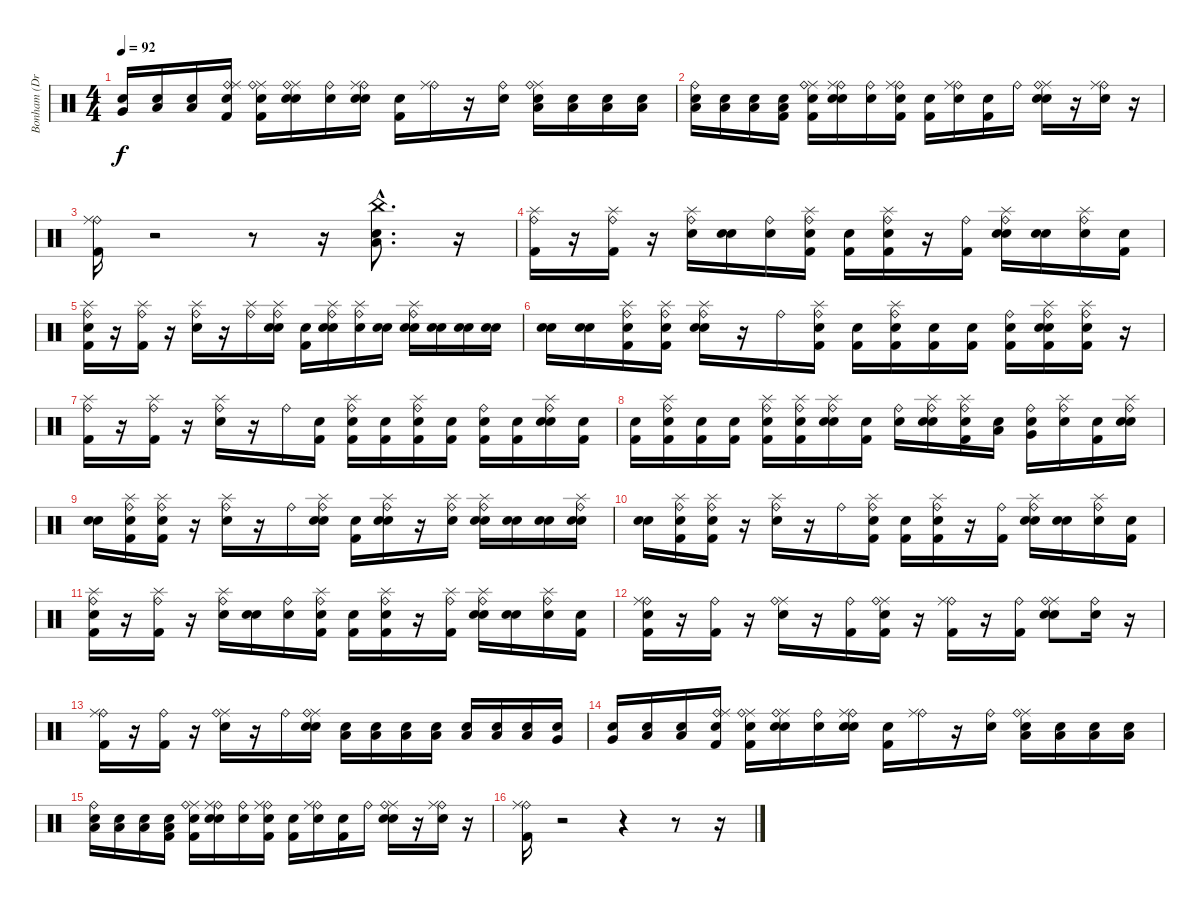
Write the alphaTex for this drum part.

\track ("Bonham (Drums)" "Bonham (Dr") {instrument percussion}
\staff {score}
\articulation defaults
\ts (4 4)
\tempo 92
\clef neutral
\ks c
("Snare (hit)" "Very Low Tom (hit)").16{dy f} ("Snare (hit)" "Low Floor Tom (hit)").16 ("Snare (hit)" "Low Floor Tom (hit)").16 ("Snare (hit)" "Ride (bell)" "Ride (middle)" "Kick (hit) 2").16 ("Snare (hit)" "Ride (middle)" "Kick (hit) 2" "Ride (bell)").16 ("Snare (hit)" "Ride (middle)" "Electric Snare (hit)" "Ride (bell)").16 ("Snare (hit)" "Ride (bell)").16 ("Snare (hit)" "Electric Snare (hit)" "Ride (bell)" "Ride (middle)").16 ("Snare (hit)" "Kick (hit) 2").16 ("Ride (bell)" "Ride (middle)").16 r.16 ("Electric Snare (hit)" "Ride (bell)").16 ("Snare (hit)" "Ride (middle)" "Low Tom (hit)" "Ride (bell)").16 ("Snare (hit)" "Low Tom (hit)").16 ("Snare (hit)" "Low Tom (hit)").16 ("Snare (hit)" "Low Tom (hit)").16 |
("Snare (hit)" "Low Tom (hit)" "Ride (bell)").16 ("Snare (hit)" "Low Tom (hit)").16 ("Snare (hit)" "Low Tom (hit)").16 ("Snare (hit)" "Low Tom (hit)" "Kick (hit) 2").16 ("Snare (hit)" "Ride (middle)" "Ride (bell)" "Kick (hit) 2").16 ("Snare (hit)" "Electric Snare (hit)" "Ride (bell)" "Ride (middle)").16 ("Snare (hit)" "Ride (bell)").16 ("Snare (hit)" "Kick (hit) 2" "Ride (bell)" "Ride (middle)").16 ("Snare (hit)" "Kick (hit) 2").16 ("Snare (hit)" "Ride (bell)" "Ride (middle)").16 ("Snare (hit)" "Kick (hit) 2").16 "Ride (bell)".16 ("Snare (hit)" "Electric Snare (hit)" "Ride (middle)" "Ride (bell)").16 r.16 ("Electric Snare (hit)" "Ride (bell)" "Ride (middle)").16 r.16 |
("Kick (hit) 2" "Ride (bell)" "Ride (middle)").16 r.2 r.8 r.16 ("Low Tom (hit)"{hac} "Electric Snare (hit)"{hac} "China (hit)"{hac}).8{d} r.16 |
("Kick (hit) 2" "Ride (bell)" "Splash (hit)").16 r.16 ("Kick (hit) 2" "Ride (bell)" "Splash (hit)").16 r.16 ("Electric Snare (hit)" "Ride (bell)" "Splash (hit)").16 ("Snare (hit)" "Electric Snare (hit)").16 ("Snare (hit)" "Ride (bell)").16 ("Snare (hit)" "Kick (hit) 2" "Ride (bell)" "Splash (hit)").16 ("Snare (hit)" "Kick (hit) 2").16 ("Snare (hit)" "Kick (hit) 2" "Ride (bell)" "Splash (hit)").16 r.16 ("Ride (bell)" "Kick (hit) 2").16 ("Snare (hit)" "Ride (bell)" "Electric Snare (hit)" "Splash (hit)").16 ("Snare (hit)" "Electric Snare (hit)").16 ("Snare (hit)" "Ride (bell)" "Splash (hit)").16 ("Snare (hit)" "Kick (hit) 2").16 |
("Snare (hit)" "Kick (hit) 2" "Ride (bell)" "Splash (hit)").16 r.16 ("Kick (hit) 2" "Ride (bell)" "Splash (hit)").16 r.16 ("Electric Snare (hit)" "Ride (bell)" "Splash (hit)").16 r.16 ("Ride (bell)" "Splash (hit)").16 ("Snare (hit)" "Electric Snare (hit)" "Ride (bell)" "Splash (hit)").16 ("Snare (hit)" "Kick (hit) 2").16 ("Snare (hit)" "Electric Snare (hit)" "Ride (bell)" "Splash (hit)").16 ("Snare (hit)" "Ride (bell)" "Splash (hit)").16 ("Snare (hit)" "Electric Snare (hit)").16 ("Snare (hit)" "Ride (bell)" "Splash (hit)" "Electric Snare (hit)").16 ("Snare (hit)" "Electric Snare (hit)").16 ("Snare (hit)" "Electric Snare (hit)").16 ("Snare (hit)" "Electric Snare (hit)").16 |
("Snare (hit)" "Electric Snare (hit)").16 ("Snare (hit)" "Electric Snare (hit)").16 ("Snare (hit)" "Kick (hit) 2" "Ride (bell)" "Splash (hit)").16 ("Snare (hit)" "Kick (hit) 2" "Ride (bell)" "Splash (hit)").16 ("Snare (hit)" "Electric Snare (hit)" "Ride (bell)" "Splash (hit)").16 r.16 "Ride (bell)".16 ("Snare (hit)" "Kick (hit) 2" "Ride (bell)" "Splash (hit)").16 ("Snare (hit)" "Kick (hit) 2").16 ("Snare (hit)" "Ride (bell)" "Splash (hit)" "Kick (hit) 2").16 ("Snare (hit)" "Kick (hit) 2").16 ("Snare (hit)" "Kick (hit) 2").16 ("Snare (hit)" "Ride (bell)" "Kick (hit) 2").16 ("Snare (hit)" "Kick (hit) 2" "Ride (bell)" "Splash (hit)" "Electric Snare (hit)").16 ("Snare (hit)" "Ride (bell)" "Splash (hit)" "Kick (hit) 2").16 r.16 |
("Ride (bell)" "Splash (hit)" "Kick (hit) 2").16 r.16 ("Ride (bell)" "Kick (hit) 2" "Splash (hit)").16 r.16 ("Electric Snare (hit)" "Ride (bell)" "Splash (hit)").16 r.16 "Ride (bell)".16 ("Snare (hit)" "Kick (hit) 2").16 ("Snare (hit)" "Ride (bell)" "Splash (hit)" "Kick (hit) 2").16 ("Snare (hit)" "Kick (hit) 2").16 ("Snare (hit)" "Kick (hit) 2" "Ride (bell)" "Splash (hit)").16 ("Snare (hit)" "Kick (hit) 2").16 ("Snare (hit)" "Ride (bell)" "Kick (hit) 2").16 ("Snare (hit)" "Kick (hit) 2").16 ("Snare (hit)" "Ride (bell)" "Splash (hit)" "Electric Snare (hit)").16 ("Snare (hit)" "Kick (hit) 2").16 |
("Snare (hit)" "Kick (hit) 2").16 ("Snare (hit)" "Ride (bell)" "Splash (hit)" "Kick (hit) 2").16 ("Snare (hit)" "Kick (hit) 2").16 ("Snare (hit)" "Kick (hit) 2").16 ("Snare (hit)" "Ride (bell)" "Splash (hit)" "Kick (hit) 2").16 ("Snare (hit)" "Kick (hit) 2" "Ride (bell)" "Splash (hit)").16 ("Snare (hit)" "Electric Snare (hit)" "Ride (bell)" "Splash (hit)").16 ("Snare (hit)" "Kick (hit) 2").16 ("Snare (hit)" "Ride (bell)").16 ("Snare (hit)" "Electric Snare (hit)" "Ride (bell)" "Splash (hit)").16 ("Snare (hit)" "Kick (hit) 2" "Ride (bell)" "Splash (hit)").16 ("Snare (hit)" "Low Tom (hit)").16 ("Snare (hit)" "Very Low Tom (hit)" "Ride (bell)").16 ("Snare (hit)" "Ride (bell)" "Splash (hit)").16 ("Snare (hit)" "Kick (hit) 2").16 ("Snare (hit)" "Electric Snare (hit)" "Ride (bell)" "Splash (hit)").16 |
("Snare (hit)" "Electric Snare (hit)").16 ("Snare (hit)" "Kick (hit) 2" "Ride (bell)" "Splash (hit)").16 ("Snare (hit)" "Kick (hit) 2" "Ride (bell)" "Splash (hit)").16 r.16 ("Electric Snare (hit)" "Ride (bell)" "Splash (hit)").16 r.16 "Ride (bell)".16 ("Snare (hit)" "Electric Snare (hit)" "Ride (bell)" "Splash (hit)").16 ("Snare (hit)" "Kick (hit) 2").16 ("Snare (hit)" "Electric Snare (hit)" "Ride (bell)" "Splash (hit)").16 r.16 ("Ride (bell)" "Splash (hit)" "Electric Snare (hit)").16 ("Snare (hit)" "Ride (bell)" "Splash (hit)" "Electric Snare (hit)").16 ("Snare (hit)" "Electric Snare (hit)").16 ("Snare (hit)" "Electric Snare (hit)").16 ("Snare (hit)" "Electric Snare (hit)" "Ride (bell)" "Splash (hit)").16 |
("Snare (hit)" "Electric Snare (hit)").16 ("Snare (hit)" "Kick (hit) 2" "Ride (bell)" "Splash (hit)").16 ("Snare (hit)" "Kick (hit) 2" "Ride (bell)" "Splash (hit)").16 r.16 ("Electric Snare (hit)" "Ride (bell)" "Splash (hit)").16 r.16 "Ride (bell)".16 ("Snare (hit)" "Kick (hit) 2" "Ride (bell)" "Splash (hit)").16 ("Snare (hit)" "Kick (hit) 2").16 ("Snare (hit)" "Kick (hit) 2" "Ride (bell)" "Splash (hit)").16 r.16 ("Kick (hit) 2" "Ride (bell)").16 ("Snare (hit)" "Electric Snare (hit)" "Ride (bell)" "Splash (hit)").16 ("Snare (hit)" "Electric Snare (hit)").16 ("Snare (hit)" "Ride (bell)" "Splash (hit)").16 ("Snare (hit)" "Kick (hit) 2").16 |
("Snare (hit)" "Kick (hit) 2" "Ride (bell)" "Splash (hit)").16 r.16 ("Kick (hit) 2" "Ride (bell)" "Splash (hit)").16 r.16 ("Electric Snare (hit)" "Ride (bell)" "Splash (hit)").16 ("Snare (hit)" "Electric Snare (hit)").16 ("Snare (hit)" "Ride (bell)").16 ("Snare (hit)" "Kick (hit) 2" "Ride (bell)" "Splash (hit)").16 ("Snare (hit)" "Kick (hit) 2").16 ("Snare (hit)" "Kick (hit) 2" "Ride (bell)" "Splash (hit)").16 r.16 ("Kick (hit) 2" "Ride (bell)" "Splash (hit)").16 ("Snare (hit)" "Electric Snare (hit)" "Ride (bell)" "Splash (hit)").16 ("Snare (hit)" "Electric Snare (hit)").16 ("Snare (hit)" "Ride (bell)" "Splash (hit)").16 ("Snare (hit)" "Kick (hit) 2").16 |
("Snare (hit)" "Kick (hit) 2" "Ride (bell)" "Ride (middle)").16 r.16 ("Ride (bell)" "Kick (hit) 2").16 r.16 ("Ride (middle)" "Ride (bell)" "Electric Snare (hit)").16 r.16 ("Ride (bell)" "Kick (hit) 2").16 ("Snare (hit)" "Ride (middle)" "Ride (bell)" "Kick (hit) 2").16 r.16 ("Ride (bell)" "Ride (middle)" "Kick (hit) 2").16 r.16 ("Ride (bell)" "Kick (hit) 2").16 ("Snare (hit)" "Ride (middle)" "Ride (bell)" "Electric Snare (hit)").8 ("Snare (hit)" "Ride (bell)").16 r.16 |
("Ride (bell)" "Ride (middle)" "Kick (hit) 2").16 r.16 ("Ride (bell)" "Kick (hit) 2").16 r.16 ("Electric Snare (hit)" "Ride (middle)" "Ride (bell)").16 r.16 "Ride (bell)".16 ("Snare (hit)" "Electric Snare (hit)" "Ride (middle)" "Ride (bell)").16 ("Snare (hit)" "Low Tom (hit)").16 ("Snare (hit)" "Low Tom (hit)").16 ("Snare (hit)" "Low Tom (hit)").16 ("Snare (hit)" "Low Tom (hit)").16 ("Snare (hit)" "Low Tom (hit)").16 ("Snare (hit)" "Low Tom (hit)").16 ("Snare (hit)" "Low Tom (hit)").16 ("Snare (hit)" "Very Low Tom (hit)").16 |
("Snare (hit)" "Very Low Tom (hit)").16 ("Snare (hit)" "Low Floor Tom (hit)").16 ("Snare (hit)" "Low Floor Tom (hit)").16 ("Snare (hit)" "Ride (bell)" "Ride (middle)" "Kick (hit) 2").16 ("Snare (hit)" "Ride (middle)" "Kick (hit) 2" "Ride (bell)").16 ("Snare (hit)" "Ride (middle)" "Electric Snare (hit)" "Ride (bell)").16 ("Snare (hit)" "Ride (bell)").16 ("Snare (hit)" "Electric Snare (hit)" "Ride (bell)" "Ride (middle)").16 ("Snare (hit)" "Kick (hit) 2").16 ("Ride (bell)" "Ride (middle)").16 r.16 ("Electric Snare (hit)" "Ride (bell)").16 ("Snare (hit)" "Ride (middle)" "Low Tom (hit)" "Ride (bell)").16 ("Snare (hit)" "Low Tom (hit)").16 ("Snare (hit)" "Low Tom (hit)").16 ("Snare (hit)" "Low Tom (hit)").16 |
("Snare (hit)" "Low Tom (hit)" "Ride (bell)").16 ("Snare (hit)" "Low Tom (hit)").16 ("Snare (hit)" "Low Tom (hit)").16 ("Snare (hit)" "Low Tom (hit)" "Kick (hit) 2").16 ("Snare (hit)" "Ride (middle)" "Ride (bell)" "Kick (hit) 2").16 ("Snare (hit)" "Electric Snare (hit)" "Ride (bell)" "Ride (middle)").16 ("Snare (hit)" "Ride (bell)").16 ("Snare (hit)" "Kick (hit) 2" "Ride (bell)" "Ride (middle)").16 ("Snare (hit)" "Kick (hit) 2").16 ("Snare (hit)" "Ride (bell)" "Ride (middle)").16 ("Snare (hit)" "Kick (hit) 2").16 "Ride (bell)".16 ("Snare (hit)" "Electric Snare (hit)" "Ride (middle)" "Ride (bell)").16 r.16 ("Electric Snare (hit)" "Ride (bell)" "Ride (middle)").16 r.16 |
("Kick (hit) 2" "Ride (bell)" "Ride (middle)").16 r.2 r.4 r.8 r.16
